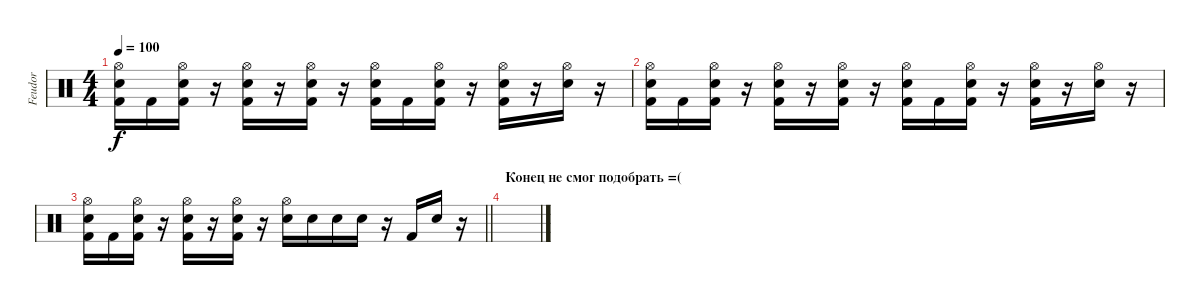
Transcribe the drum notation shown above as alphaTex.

\track ("Feudor" "Feudor") {instrument percussion}
\staff {score}
\articulation defaults
\ts (4 4)
\tempo 100
\clef neutral
\ks c
("Hi-Hat (open)" "Electric Snare (hit)" "Kick (hit) 2").16{dy f} "Kick (hit) 2".16 ("Hi-Hat (open)" "Electric Snare (hit)" "Kick (hit) 2").16 r.16 ("Hi-Hat (open)" "Electric Snare (hit)" "Kick (hit) 2").16 r.16 ("Hi-Hat (open)" "Electric Snare (hit)" "Kick (hit) 2").16 r.16 ("Hi-Hat (open)" "Electric Snare (hit)" "Kick (hit) 2").16 "Kick (hit) 2".16 ("Hi-Hat (open)" "Electric Snare (hit)" "Kick (hit) 2").16 r.16 ("Hi-Hat (open)" "Electric Snare (hit)" "Kick (hit) 2").16 r.16 ("Hi-Hat (open)" "Electric Snare (hit)").16 r.16 |
("Hi-Hat (open)" "Electric Snare (hit)" "Kick (hit) 2").16 "Kick (hit) 2".16 ("Hi-Hat (open)" "Electric Snare (hit)" "Kick (hit) 2").16 r.16 ("Hi-Hat (open)" "Electric Snare (hit)" "Kick (hit) 2").16 r.16 ("Hi-Hat (open)" "Electric Snare (hit)" "Kick (hit) 2").16 r.16 ("Hi-Hat (open)" "Electric Snare (hit)" "Kick (hit) 2").16 "Kick (hit) 2".16 ("Hi-Hat (open)" "Electric Snare (hit)" "Kick (hit) 2").16 r.16 ("Hi-Hat (open)" "Electric Snare (hit)" "Kick (hit) 2").16 r.16 ("Hi-Hat (open)" "Electric Snare (hit)").16 r.16 |
\barLineRight lightlight
("Hi-Hat (open)" "Electric Snare (hit)" "Kick (hit) 2").16 "Kick (hit) 2".16 ("Hi-Hat (open)" "Electric Snare (hit)" "Kick (hit) 2").16 r.16 ("Hi-Hat (open)" "Electric Snare (hit)" "Kick (hit) 2").16 r.16 ("Hi-Hat (open)" "Electric Snare (hit)" "Kick (hit) 2").16 r.16 ("Hi-Hat (open)" "Electric Snare (hit)").16 "Electric Snare (hit)".16 "Electric Snare (hit)".16 "Electric Snare (hit)".16 r.16 "Kick (hit) 2".16 "Electric Snare (hit)".16 r.16 |
\section ("" "Конец не смог подобрать =(")
